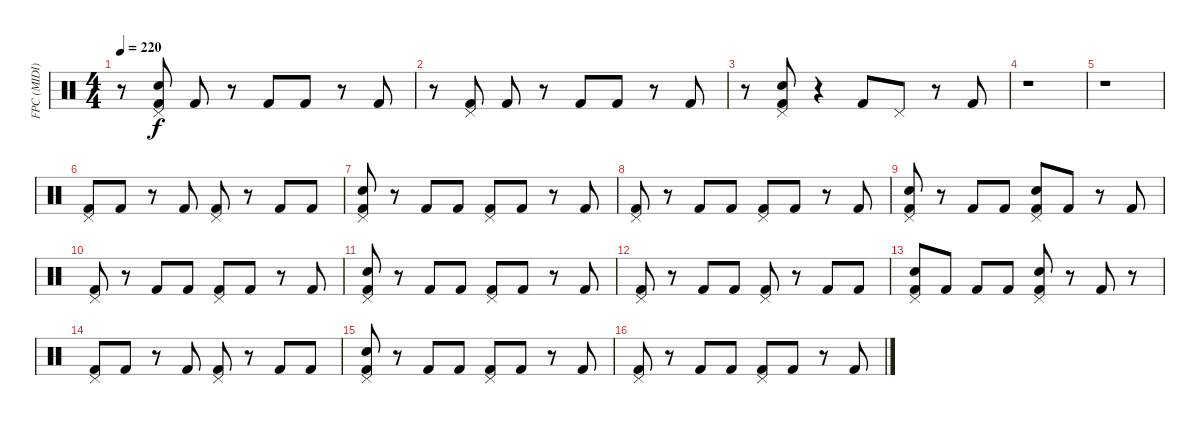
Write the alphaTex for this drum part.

\track ("FPC (MIDI)" "FPC (MIDI)") {instrument percussion}
\staff {score}
\articulation defaults
\ts (4 4)
\tempo 220
\clef neutral
\ks c
r.8{dy f} ("Snare (hit) 2" "Pedal Hi-Hat (hit)" "Kick (hit) 2").8 "Kick (hit) 2".8 r.8 "Kick (hit) 2".8 "Kick (hit) 2".8 r.8 "Kick (hit) 2".8 |
r.8 ("Pedal Hi-Hat (hit)" "Kick (hit) 2").8 "Kick (hit) 2".8 r.8 "Kick (hit) 2".8 "Kick (hit) 2".8 r.8 "Kick (hit) 2".8 |
r.8 ("Kick (hit) 2" "Pedal Hi-Hat (hit)" "Snare (hit) 2").8 r.4 "Kick (hit) 2".8 "Pedal Hi-Hat (hit)".8 r.8 "Kick (hit) 2".8 |
r.1 |
r.1 |
("Kick (hit) 2" "Pedal Hi-Hat (hit)").8 "Kick (hit) 2".8 r.8 "Kick (hit) 2".8 ("Pedal Hi-Hat (hit)" "Kick (hit) 2").8 r.8 "Kick (hit) 2".8 "Kick (hit) 2".8 |
("Pedal Hi-Hat (hit)" "Snare (hit) 2" "Kick (hit) 2").8 r.8 "Kick (hit) 2".8 "Kick (hit) 2".8 ("Pedal Hi-Hat (hit)" "Kick (hit) 2").8 "Kick (hit) 2".8 r.8 "Kick (hit) 2".8 |
("Kick (hit) 2" "Pedal Hi-Hat (hit)").8 r.8 "Kick (hit) 2".8 "Kick (hit) 2".8 ("Pedal Hi-Hat (hit)" "Kick (hit) 2").8 "Kick (hit) 2".8 r.8 "Kick (hit) 2".8 |
("Pedal Hi-Hat (hit)" "Snare (hit) 2" "Kick (hit) 2").8 r.8 "Kick (hit) 2".8 "Kick (hit) 2".8 ("Kick (hit) 2" "Pedal Hi-Hat (hit)" "Snare (hit) 2").8 "Kick (hit) 2".8 r.8 "Kick (hit) 2".8 |
("Pedal Hi-Hat (hit)" "Kick (hit) 2").8 r.8 "Kick (hit) 2".8 "Kick (hit) 2".8 ("Pedal Hi-Hat (hit)" "Kick (hit) 2").8 "Kick (hit) 2".8 r.8 "Kick (hit) 2".8 |
("Pedal Hi-Hat (hit)" "Snare (hit) 2" "Kick (hit) 2").8 r.8 "Kick (hit) 2".8 "Kick (hit) 2".8 ("Kick (hit) 2" "Pedal Hi-Hat (hit)").8 "Kick (hit) 2".8 r.8 "Kick (hit) 2".8 |
("Kick (hit) 2" "Pedal Hi-Hat (hit)").8 r.8 "Kick (hit) 2".8 "Kick (hit) 2".8 ("Pedal Hi-Hat (hit)" "Kick (hit) 2").8 r.8 "Kick (hit) 2".8 "Kick (hit) 2".8 |
("Pedal Hi-Hat (hit)" "Snare (hit) 2" "Kick (hit) 2").8 "Kick (hit) 2".8 "Kick (hit) 2".8 "Kick (hit) 2".8 ("Kick (hit) 2" "Pedal Hi-Hat (hit)" "Snare (hit) 2").8 r.8 "Kick (hit) 2".8 r.8 |
("Kick (hit) 2" "Pedal Hi-Hat (hit)").8 "Kick (hit) 2".8 r.8 "Kick (hit) 2".8 ("Pedal Hi-Hat (hit)" "Kick (hit) 2").8 r.8 "Kick (hit) 2".8 "Kick (hit) 2".8 |
("Pedal Hi-Hat (hit)" "Snare (hit) 2" "Kick (hit) 2").8 r.8 "Kick (hit) 2".8 "Kick (hit) 2".8 ("Pedal Hi-Hat (hit)" "Kick (hit) 2").8 "Kick (hit) 2".8 r.8 "Kick (hit) 2".8 |
("Kick (hit) 2" "Pedal Hi-Hat (hit)").8 r.8 "Kick (hit) 2".8 "Kick (hit) 2".8 ("Pedal Hi-Hat (hit)" "Kick (hit) 2").8 "Kick (hit) 2".8 r.8 "Kick (hit) 2".8
